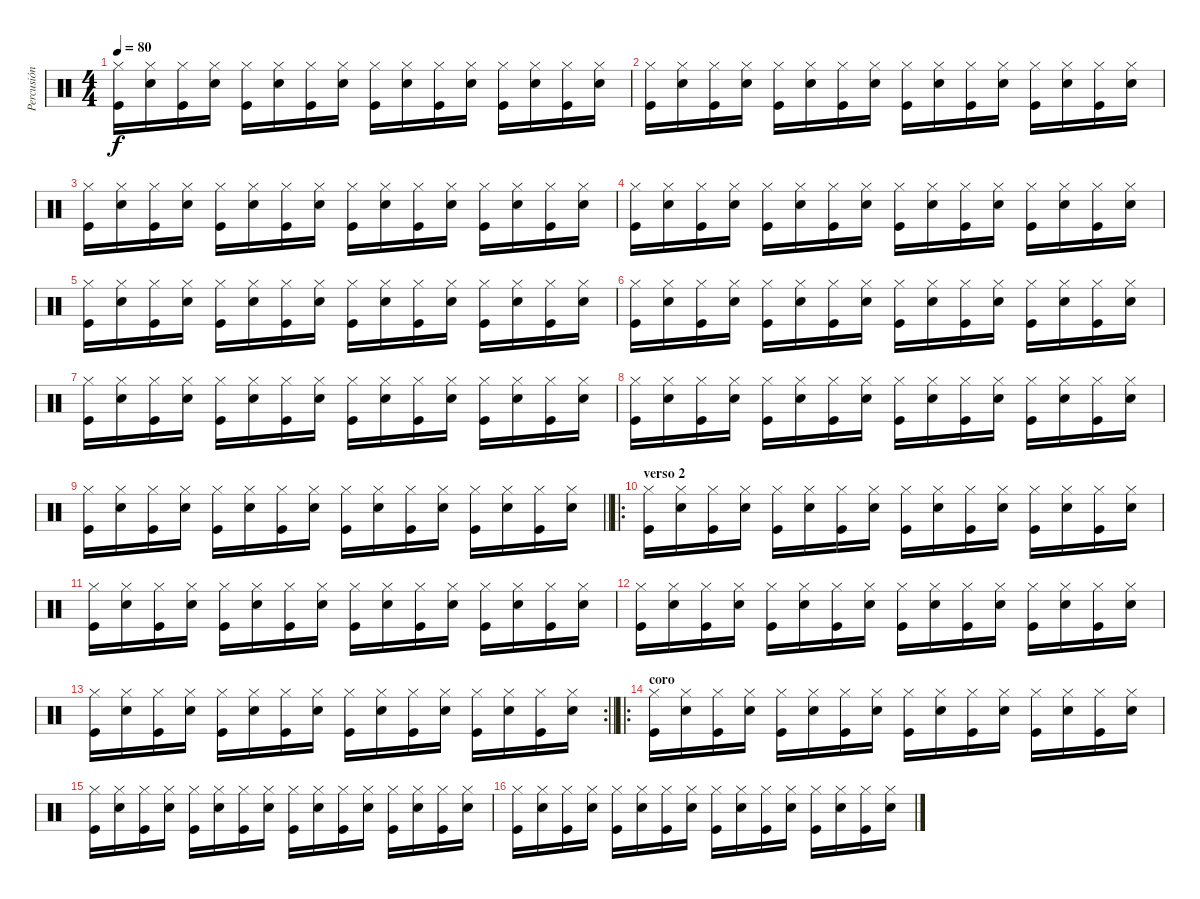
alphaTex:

\track ("Percusión" "Percusión") {instrument percussion}
\staff {score}
\articulation defaults
\ts (4 4)
\tempo 80
\clef neutral
\ks c
("Hi-Hat (closed)" "Kick (hit)").16{dy f} ("Hi-Hat (closed)" "Electric Snare (hit)").16 ("Hi-Hat (closed)" "Kick (hit)").16 ("Hi-Hat (closed)" "Electric Snare (hit)").16 ("Hi-Hat (closed)" "Kick (hit)").16 ("Hi-Hat (closed)" "Electric Snare (hit)").16 ("Hi-Hat (closed)" "Kick (hit)").16 ("Hi-Hat (closed)" "Electric Snare (hit)").16 ("Hi-Hat (closed)" "Kick (hit)").16 ("Hi-Hat (closed)" "Electric Snare (hit)").16 ("Hi-Hat (closed)" "Kick (hit)").16 ("Hi-Hat (closed)" "Electric Snare (hit)").16 ("Hi-Hat (closed)" "Kick (hit)").16 ("Hi-Hat (closed)" "Electric Snare (hit)").16 ("Hi-Hat (closed)" "Kick (hit)").16 ("Hi-Hat (closed)" "Electric Snare (hit)").16 |
("Hi-Hat (closed)" "Kick (hit)").16 ("Hi-Hat (closed)" "Electric Snare (hit)").16 ("Hi-Hat (closed)" "Kick (hit)").16 ("Hi-Hat (closed)" "Electric Snare (hit)").16 ("Hi-Hat (closed)" "Kick (hit)").16 ("Hi-Hat (closed)" "Electric Snare (hit)").16 ("Hi-Hat (closed)" "Kick (hit)").16 ("Hi-Hat (closed)" "Electric Snare (hit)").16 ("Hi-Hat (closed)" "Kick (hit)").16 ("Hi-Hat (closed)" "Electric Snare (hit)").16 ("Hi-Hat (closed)" "Kick (hit)").16 ("Hi-Hat (closed)" "Electric Snare (hit)").16 ("Hi-Hat (closed)" "Kick (hit)").16 ("Hi-Hat (closed)" "Electric Snare (hit)").16 ("Hi-Hat (closed)" "Kick (hit)").16 ("Hi-Hat (closed)" "Electric Snare (hit)").16 |
("Hi-Hat (closed)" "Kick (hit)").16 ("Hi-Hat (closed)" "Electric Snare (hit)").16 ("Hi-Hat (closed)" "Kick (hit)").16 ("Hi-Hat (closed)" "Electric Snare (hit)").16 ("Hi-Hat (closed)" "Kick (hit)").16 ("Hi-Hat (closed)" "Electric Snare (hit)").16 ("Hi-Hat (closed)" "Kick (hit)").16 ("Hi-Hat (closed)" "Electric Snare (hit)").16 ("Hi-Hat (closed)" "Kick (hit)").16 ("Hi-Hat (closed)" "Electric Snare (hit)").16 ("Hi-Hat (closed)" "Kick (hit)").16 ("Hi-Hat (closed)" "Electric Snare (hit)").16 ("Hi-Hat (closed)" "Kick (hit)").16 ("Hi-Hat (closed)" "Electric Snare (hit)").16 ("Hi-Hat (closed)" "Kick (hit)").16 ("Hi-Hat (closed)" "Electric Snare (hit)").16 |
("Hi-Hat (closed)" "Kick (hit)").16 ("Hi-Hat (closed)" "Electric Snare (hit)").16 ("Hi-Hat (closed)" "Kick (hit)").16 ("Hi-Hat (closed)" "Electric Snare (hit)").16 ("Hi-Hat (closed)" "Kick (hit)").16 ("Hi-Hat (closed)" "Electric Snare (hit)").16 ("Hi-Hat (closed)" "Kick (hit)").16 ("Hi-Hat (closed)" "Electric Snare (hit)").16 ("Hi-Hat (closed)" "Kick (hit)").16 ("Hi-Hat (closed)" "Electric Snare (hit)").16 ("Hi-Hat (closed)" "Kick (hit)").16 ("Hi-Hat (closed)" "Electric Snare (hit)").16 ("Hi-Hat (closed)" "Kick (hit)").16 ("Hi-Hat (closed)" "Electric Snare (hit)").16 ("Hi-Hat (closed)" "Kick (hit)").16 ("Hi-Hat (closed)" "Electric Snare (hit)").16 |
("Hi-Hat (closed)" "Kick (hit)").16 ("Hi-Hat (closed)" "Electric Snare (hit)").16 ("Hi-Hat (closed)" "Kick (hit)").16 ("Hi-Hat (closed)" "Electric Snare (hit)").16 ("Hi-Hat (closed)" "Kick (hit)").16 ("Hi-Hat (closed)" "Electric Snare (hit)").16 ("Hi-Hat (closed)" "Kick (hit)").16 ("Hi-Hat (closed)" "Electric Snare (hit)").16 ("Hi-Hat (closed)" "Kick (hit)").16 ("Hi-Hat (closed)" "Electric Snare (hit)").16 ("Hi-Hat (closed)" "Kick (hit)").16 ("Hi-Hat (closed)" "Electric Snare (hit)").16 ("Hi-Hat (closed)" "Kick (hit)").16 ("Hi-Hat (closed)" "Electric Snare (hit)").16 ("Hi-Hat (closed)" "Kick (hit)").16 ("Hi-Hat (closed)" "Electric Snare (hit)").16 |
("Hi-Hat (closed)" "Kick (hit)").16 ("Hi-Hat (closed)" "Electric Snare (hit)").16 ("Hi-Hat (closed)" "Kick (hit)").16 ("Hi-Hat (closed)" "Electric Snare (hit)").16 ("Hi-Hat (closed)" "Kick (hit)").16 ("Hi-Hat (closed)" "Electric Snare (hit)").16 ("Hi-Hat (closed)" "Kick (hit)").16 ("Hi-Hat (closed)" "Electric Snare (hit)").16 ("Hi-Hat (closed)" "Kick (hit)").16 ("Hi-Hat (closed)" "Electric Snare (hit)").16 ("Hi-Hat (closed)" "Kick (hit)").16 ("Hi-Hat (closed)" "Electric Snare (hit)").16 ("Hi-Hat (closed)" "Kick (hit)").16 ("Hi-Hat (closed)" "Electric Snare (hit)").16 ("Hi-Hat (closed)" "Kick (hit)").16 ("Hi-Hat (closed)" "Electric Snare (hit)").16 |
("Hi-Hat (closed)" "Kick (hit)").16 ("Hi-Hat (closed)" "Electric Snare (hit)").16 ("Hi-Hat (closed)" "Kick (hit)").16 ("Hi-Hat (closed)" "Electric Snare (hit)").16 ("Hi-Hat (closed)" "Kick (hit)").16 ("Hi-Hat (closed)" "Electric Snare (hit)").16 ("Hi-Hat (closed)" "Kick (hit)").16 ("Hi-Hat (closed)" "Electric Snare (hit)").16 ("Hi-Hat (closed)" "Kick (hit)").16 ("Hi-Hat (closed)" "Electric Snare (hit)").16 ("Hi-Hat (closed)" "Kick (hit)").16 ("Hi-Hat (closed)" "Electric Snare (hit)").16 ("Hi-Hat (closed)" "Kick (hit)").16 ("Hi-Hat (closed)" "Electric Snare (hit)").16 ("Hi-Hat (closed)" "Kick (hit)").16 ("Hi-Hat (closed)" "Electric Snare (hit)").16 |
("Hi-Hat (closed)" "Kick (hit)").16 ("Hi-Hat (closed)" "Electric Snare (hit)").16 ("Hi-Hat (closed)" "Kick (hit)").16 ("Hi-Hat (closed)" "Electric Snare (hit)").16 ("Hi-Hat (closed)" "Kick (hit)").16 ("Hi-Hat (closed)" "Electric Snare (hit)").16 ("Hi-Hat (closed)" "Kick (hit)").16 ("Hi-Hat (closed)" "Electric Snare (hit)").16 ("Hi-Hat (closed)" "Kick (hit)").16 ("Hi-Hat (closed)" "Electric Snare (hit)").16 ("Hi-Hat (closed)" "Kick (hit)").16 ("Hi-Hat (closed)" "Electric Snare (hit)").16 ("Hi-Hat (closed)" "Kick (hit)").16 ("Hi-Hat (closed)" "Electric Snare (hit)").16 ("Hi-Hat (closed)" "Kick (hit)").16 ("Hi-Hat (closed)" "Electric Snare (hit)").16 |
\barLineRight lightlight
("Hi-Hat (closed)" "Kick (hit)").16 ("Hi-Hat (closed)" "Electric Snare (hit)").16 ("Hi-Hat (closed)" "Kick (hit)").16 ("Hi-Hat (closed)" "Electric Snare (hit)").16 ("Hi-Hat (closed)" "Kick (hit)").16 ("Hi-Hat (closed)" "Electric Snare (hit)").16 ("Hi-Hat (closed)" "Kick (hit)").16 ("Hi-Hat (closed)" "Electric Snare (hit)").16 ("Hi-Hat (closed)" "Kick (hit)").16 ("Hi-Hat (closed)" "Electric Snare (hit)").16 ("Hi-Hat (closed)" "Kick (hit)").16 ("Hi-Hat (closed)" "Electric Snare (hit)").16 ("Hi-Hat (closed)" "Kick (hit)").16 ("Hi-Hat (closed)" "Electric Snare (hit)").16 ("Hi-Hat (closed)" "Kick (hit)").16 ("Hi-Hat (closed)" "Electric Snare (hit)").16 |
\ro
\section ("" "verso 2")
("Hi-Hat (closed)" "Kick (hit)").16 ("Hi-Hat (closed)" "Electric Snare (hit)").16 ("Hi-Hat (closed)" "Kick (hit)").16 ("Hi-Hat (closed)" "Electric Snare (hit)").16 ("Hi-Hat (closed)" "Kick (hit)").16 ("Hi-Hat (closed)" "Electric Snare (hit)").16 ("Hi-Hat (closed)" "Kick (hit)").16 ("Hi-Hat (closed)" "Electric Snare (hit)").16 ("Hi-Hat (closed)" "Kick (hit)").16 ("Hi-Hat (closed)" "Electric Snare (hit)").16 ("Hi-Hat (closed)" "Kick (hit)").16 ("Hi-Hat (closed)" "Electric Snare (hit)").16 ("Hi-Hat (closed)" "Kick (hit)").16 ("Hi-Hat (closed)" "Electric Snare (hit)").16 ("Hi-Hat (closed)" "Kick (hit)").16 ("Hi-Hat (closed)" "Electric Snare (hit)").16 |
("Hi-Hat (closed)" "Kick (hit)").16 ("Hi-Hat (closed)" "Electric Snare (hit)").16 ("Hi-Hat (closed)" "Kick (hit)").16 ("Hi-Hat (closed)" "Electric Snare (hit)").16 ("Hi-Hat (closed)" "Kick (hit)").16 ("Hi-Hat (closed)" "Electric Snare (hit)").16 ("Hi-Hat (closed)" "Kick (hit)").16 ("Hi-Hat (closed)" "Electric Snare (hit)").16 ("Hi-Hat (closed)" "Kick (hit)").16 ("Hi-Hat (closed)" "Electric Snare (hit)").16 ("Hi-Hat (closed)" "Kick (hit)").16 ("Hi-Hat (closed)" "Electric Snare (hit)").16 ("Hi-Hat (closed)" "Kick (hit)").16 ("Hi-Hat (closed)" "Electric Snare (hit)").16 ("Hi-Hat (closed)" "Kick (hit)").16 ("Hi-Hat (closed)" "Electric Snare (hit)").16 |
("Hi-Hat (closed)" "Kick (hit)").16 ("Hi-Hat (closed)" "Electric Snare (hit)").16 ("Hi-Hat (closed)" "Kick (hit)").16 ("Hi-Hat (closed)" "Electric Snare (hit)").16 ("Hi-Hat (closed)" "Kick (hit)").16 ("Hi-Hat (closed)" "Electric Snare (hit)").16 ("Hi-Hat (closed)" "Kick (hit)").16 ("Hi-Hat (closed)" "Electric Snare (hit)").16 ("Hi-Hat (closed)" "Kick (hit)").16 ("Hi-Hat (closed)" "Electric Snare (hit)").16 ("Hi-Hat (closed)" "Kick (hit)").16 ("Hi-Hat (closed)" "Electric Snare (hit)").16 ("Hi-Hat (closed)" "Kick (hit)").16 ("Hi-Hat (closed)" "Electric Snare (hit)").16 ("Hi-Hat (closed)" "Kick (hit)").16 ("Hi-Hat (closed)" "Electric Snare (hit)").16 |
\rc 2
\barLineRight lightlight
("Hi-Hat (closed)" "Kick (hit)").16 ("Hi-Hat (closed)" "Electric Snare (hit)").16 ("Hi-Hat (closed)" "Kick (hit)").16 ("Hi-Hat (closed)" "Electric Snare (hit)").16 ("Hi-Hat (closed)" "Kick (hit)").16 ("Hi-Hat (closed)" "Electric Snare (hit)").16 ("Hi-Hat (closed)" "Kick (hit)").16 ("Hi-Hat (closed)" "Electric Snare (hit)").16 ("Hi-Hat (closed)" "Kick (hit)").16 ("Hi-Hat (closed)" "Electric Snare (hit)").16 ("Hi-Hat (closed)" "Kick (hit)").16 ("Hi-Hat (closed)" "Electric Snare (hit)").16 ("Hi-Hat (closed)" "Kick (hit)").16 ("Hi-Hat (closed)" "Electric Snare (hit)").16 ("Hi-Hat (closed)" "Kick (hit)").16 ("Hi-Hat (closed)" "Electric Snare (hit)").16 |
\ro
\section ("" "coro")
("Hi-Hat (closed)" "Kick (hit)").16 ("Hi-Hat (closed)" "Electric Snare (hit)").16 ("Hi-Hat (closed)" "Kick (hit)").16 ("Hi-Hat (closed)" "Electric Snare (hit)").16 ("Hi-Hat (closed)" "Kick (hit)").16 ("Hi-Hat (closed)" "Electric Snare (hit)").16 ("Hi-Hat (closed)" "Kick (hit)").16 ("Hi-Hat (closed)" "Electric Snare (hit)").16 ("Hi-Hat (closed)" "Kick (hit)").16 ("Hi-Hat (closed)" "Electric Snare (hit)").16 ("Hi-Hat (closed)" "Kick (hit)").16 ("Hi-Hat (closed)" "Electric Snare (hit)").16 ("Hi-Hat (closed)" "Kick (hit)").16 ("Hi-Hat (closed)" "Electric Snare (hit)").16 ("Hi-Hat (closed)" "Kick (hit)").16 ("Hi-Hat (closed)" "Electric Snare (hit)").16 |
("Hi-Hat (closed)" "Kick (hit)").16 ("Hi-Hat (closed)" "Electric Snare (hit)").16 ("Hi-Hat (closed)" "Kick (hit)").16 ("Hi-Hat (closed)" "Electric Snare (hit)").16 ("Hi-Hat (closed)" "Kick (hit)").16 ("Hi-Hat (closed)" "Electric Snare (hit)").16 ("Hi-Hat (closed)" "Kick (hit)").16 ("Hi-Hat (closed)" "Electric Snare (hit)").16 ("Hi-Hat (closed)" "Kick (hit)").16 ("Hi-Hat (closed)" "Electric Snare (hit)").16 ("Hi-Hat (closed)" "Kick (hit)").16 ("Hi-Hat (closed)" "Electric Snare (hit)").16 ("Hi-Hat (closed)" "Kick (hit)").16 ("Hi-Hat (closed)" "Electric Snare (hit)").16 ("Hi-Hat (closed)" "Kick (hit)").16 ("Hi-Hat (closed)" "Electric Snare (hit)").16 |
("Hi-Hat (closed)" "Kick (hit)").16 ("Hi-Hat (closed)" "Electric Snare (hit)").16 ("Hi-Hat (closed)" "Kick (hit)").16 ("Hi-Hat (closed)" "Electric Snare (hit)").16 ("Hi-Hat (closed)" "Kick (hit)").16 ("Hi-Hat (closed)" "Electric Snare (hit)").16 ("Hi-Hat (closed)" "Kick (hit)").16 ("Hi-Hat (closed)" "Electric Snare (hit)").16 ("Hi-Hat (closed)" "Kick (hit)").16 ("Hi-Hat (closed)" "Electric Snare (hit)").16 ("Hi-Hat (closed)" "Kick (hit)").16 ("Hi-Hat (closed)" "Electric Snare (hit)").16 ("Hi-Hat (closed)" "Kick (hit)").16 ("Hi-Hat (closed)" "Electric Snare (hit)").16 ("Hi-Hat (closed)" "Kick (hit)").16 ("Hi-Hat (closed)" "Electric Snare (hit)").16
